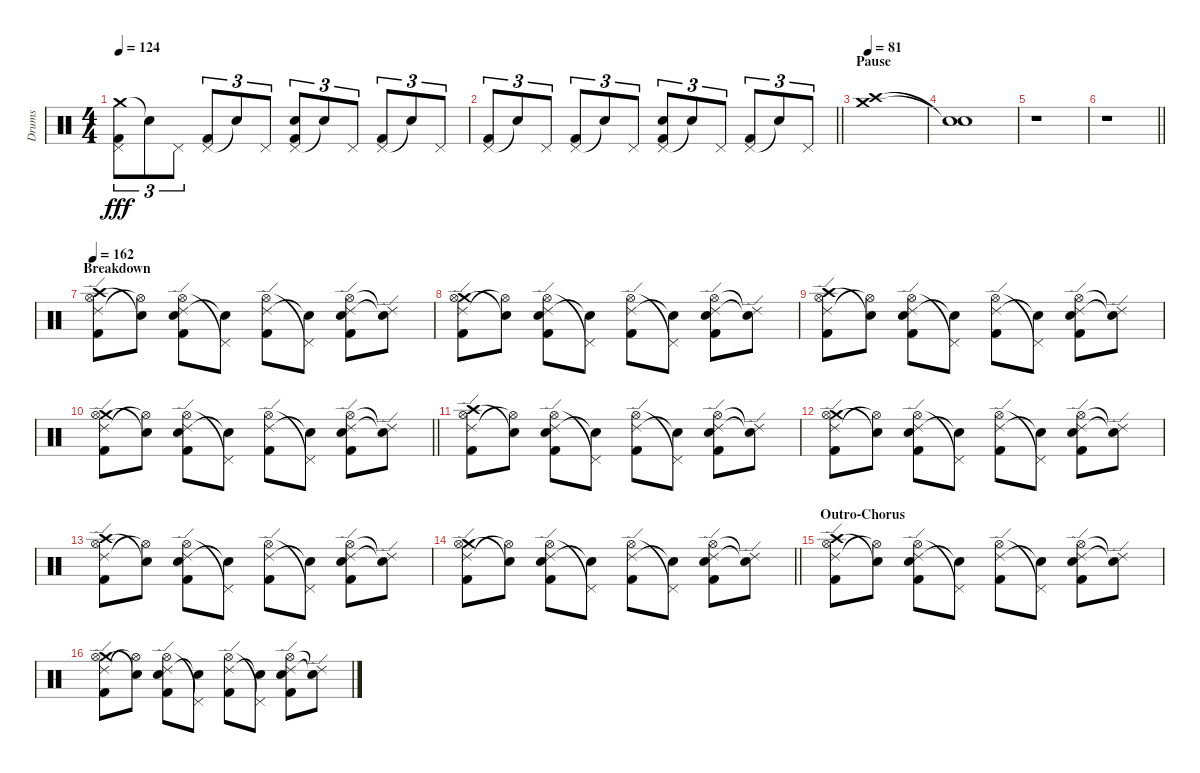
\track ("Drums" "Drums") {instrument percussion}
\staff {score}
\articulation defaults
\ts (4 4)
\tempo 124
\clef neutral
\ks c
("Crash medium (hit)" "Pedal Hi-Hat (hit)" "Kick (hit) 2").8{tu (3 2) dy fff} "Snare (hit)"{t}.8{tu (3 2)} "Pedal Hi-Hat (hit)".8{tu (3 2)} ("Pedal Hi-Hat (hit)" "Kick (hit) 2").8{tu (3 2)} "Snare (hit)"{t}.8{tu (3 2)} "Pedal Hi-Hat (hit)".8{tu (3 2)} ("Pedal Hi-Hat (hit)" "Snare (hit) 2" "Kick (hit) 2").8{tu (3 2)} "Snare (hit)"{t}.8{tu (3 2)} "Pedal Hi-Hat (hit)".8{tu (3 2)} ("Pedal Hi-Hat (hit)" "Kick (hit) 2").8{tu (3 2)} "Snare (hit)"{t}.8{tu (3 2)} "Pedal Hi-Hat (hit)".8{tu (3 2)} |
\barLineRight lightlight
("Pedal Hi-Hat (hit)" "Kick (hit) 2").8{tu (3 2)} "Snare (hit)"{t}.8{tu (3 2)} "Pedal Hi-Hat (hit)".8{tu (3 2)} ("Pedal Hi-Hat (hit)" "Kick (hit) 2").8{tu (3 2)} "Snare (hit)"{t}.8{tu (3 2)} "Pedal Hi-Hat (hit)".8{tu (3 2)} ("Pedal Hi-Hat (hit)" "Snare (hit) 2" "Kick (hit) 2").8{tu (3 2)} "Snare (hit)"{t}.8{tu (3 2)} "Pedal Hi-Hat (hit)".8{tu (3 2)} ("Pedal Hi-Hat (hit)" "Kick (hit) 2").8{tu (3 2)} "Snare (hit)"{t}.8{tu (3 2)} "Pedal Hi-Hat (hit)".8{tu (3 2)} |
\section ("" "Pause")
\tempo 81
("Crash high (hit)" "Crash medium (hit)").1 |
("Snare (hit)"{t} "Snare (hit)"{t}).1 |
r.1 |
\barLineRight lightlight
r.1 |
\section ("" "Breakdown")
\tempo 162
("Crash high (hit)" "Ride (edge) 2" "Hi-Hat (open)" "Kick (hit) 2").8 ("Snare (hit)"{t} "Hi-Hat (open)"{t}).8 ("Ride (edge) 2" "Hi-Hat (open)" "Snare (hit) 2" "Kick (hit) 2").8 ("Snare (hit)"{t} "Pedal Hi-Hat (hit)"{t}).8 ("Ride (edge) 2" "Hi-Hat (open)" "Kick (hit) 2").8 ("Snare (hit)"{t} "Pedal Hi-Hat (hit)"{t}).8 ("Ride (edge) 2" "Hi-Hat (open)" "Snare (hit) 2" "Kick (hit) 2").8 ("Snare (hit)"{t} "Ride (edge) 2"{t}).8 |
("Crash medium (hit)" "Ride (edge) 2" "Hi-Hat (open)" "Kick (hit) 2").8 ("Snare (hit)"{t} "Hi-Hat (open)"{t}).8 ("Ride (edge) 2" "Hi-Hat (open)" "Snare (hit) 2" "Kick (hit) 2").8 ("Snare (hit)"{t} "Pedal Hi-Hat (hit)"{t}).8 ("Ride (edge) 2" "Hi-Hat (open)" "Kick (hit) 2").8 ("Snare (hit)"{t} "Pedal Hi-Hat (hit)"{t}).8 ("Ride (edge) 2" "Hi-Hat (open)" "Snare (hit) 2" "Kick (hit) 2").8 ("Snare (hit)"{t} "Ride (edge) 2"{t}).8 |
("Crash high (hit)" "Ride (edge) 2" "Hi-Hat (open)" "Kick (hit) 2").8 ("Snare (hit)"{t} "Hi-Hat (open)"{t}).8 ("Ride (edge) 2" "Hi-Hat (open)" "Snare (hit) 2" "Kick (hit) 2").8 ("Snare (hit)"{t} "Pedal Hi-Hat (hit)"{t}).8 ("Ride (edge) 2" "Hi-Hat (open)" "Kick (hit) 2").8 ("Snare (hit)"{t} "Pedal Hi-Hat (hit)"{t}).8 ("Ride (edge) 2" "Hi-Hat (open)" "Snare (hit) 2" "Kick (hit) 2").8 ("Snare (hit)"{t} "Ride (edge) 2"{t}).8 |
\barLineRight lightlight
("Crash medium (hit)" "Ride (edge) 2" "Hi-Hat (open)" "Kick (hit) 2").8 ("Snare (hit)"{t} "Hi-Hat (open)"{t}).8 ("Ride (edge) 2" "Hi-Hat (open)" "Snare (hit) 2" "Kick (hit) 2").8 ("Snare (hit)"{t} "Pedal Hi-Hat (hit)"{t}).8 ("Ride (edge) 2" "Hi-Hat (open)" "Kick (hit) 2").8 ("Snare (hit)"{t} "Pedal Hi-Hat (hit)"{t}).8 ("Ride (edge) 2" "Hi-Hat (open)" "Snare (hit) 2" "Kick (hit) 2").8 ("Snare (hit)"{t} "Ride (edge) 2"{t}).8 |
("Crash high (hit)" "Ride (edge) 2" "Hi-Hat (open)" "Kick (hit) 2").8 ("Snare (hit)"{t} "Hi-Hat (open)"{t}).8 ("Ride (edge) 2" "Hi-Hat (open)" "Snare (hit) 2" "Kick (hit) 2").8 ("Snare (hit)"{t} "Pedal Hi-Hat (hit)"{t}).8 ("Ride (edge) 2" "Hi-Hat (open)" "Kick (hit) 2").8 ("Snare (hit)"{t} "Pedal Hi-Hat (hit)"{t}).8 ("Ride (edge) 2" "Hi-Hat (open)" "Snare (hit) 2" "Kick (hit) 2").8 ("Snare (hit)"{t} "Ride (edge) 2"{t}).8 |
("Crash medium (hit)" "Ride (edge) 2" "Hi-Hat (open)" "Kick (hit) 2").8 ("Snare (hit)"{t} "Hi-Hat (open)"{t}).8 ("Ride (edge) 2" "Hi-Hat (open)" "Snare (hit) 2" "Kick (hit) 2").8 ("Snare (hit)"{t} "Pedal Hi-Hat (hit)"{t}).8 ("Ride (edge) 2" "Hi-Hat (open)" "Kick (hit) 2").8 ("Snare (hit)"{t} "Pedal Hi-Hat (hit)"{t}).8 ("Ride (edge) 2" "Hi-Hat (open)" "Snare (hit) 2" "Kick (hit) 2").8 ("Snare (hit)"{t} "Ride (edge) 2"{t}).8 |
("Crash high (hit)" "Ride (edge) 2" "Hi-Hat (open)" "Kick (hit) 2").8 ("Snare (hit)"{t} "Hi-Hat (open)"{t}).8 ("Ride (edge) 2" "Hi-Hat (open)" "Snare (hit) 2" "Kick (hit) 2").8 ("Snare (hit)"{t} "Pedal Hi-Hat (hit)"{t}).8 ("Ride (edge) 2" "Hi-Hat (open)" "Kick (hit) 2").8 ("Snare (hit)"{t} "Pedal Hi-Hat (hit)"{t}).8 ("Ride (edge) 2" "Hi-Hat (open)" "Snare (hit) 2" "Kick (hit) 2").8 ("Snare (hit)"{t} "Ride (edge) 2"{t}).8 |
\barLineRight lightlight
("Crash medium (hit)" "Ride (edge) 2" "Hi-Hat (open)" "Kick (hit) 2").8 ("Snare (hit)"{t} "Hi-Hat (open)"{t}).8 ("Ride (edge) 2" "Hi-Hat (open)" "Snare (hit) 2" "Kick (hit) 2").8 ("Snare (hit)"{t} "Pedal Hi-Hat (hit)"{t}).8 ("Ride (edge) 2" "Hi-Hat (open)" "Kick (hit) 2").8 ("Snare (hit)"{t} "Pedal Hi-Hat (hit)"{t}).8 ("Ride (edge) 2" "Hi-Hat (open)" "Snare (hit) 2" "Kick (hit) 2").8 ("Snare (hit)"{t} "Ride (edge) 2"{t}).8 |
\section ("" "Outro-Chorus")
("Crash high (hit)" "Ride (edge) 2" "Hi-Hat (open)" "Kick (hit) 2").8 ("Snare (hit)"{t} "Hi-Hat (open)"{t}).8 ("Ride (edge) 2" "Hi-Hat (open)" "Snare (hit) 2" "Kick (hit) 2").8 ("Snare (hit)"{t} "Pedal Hi-Hat (hit)"{t}).8 ("Ride (edge) 2" "Hi-Hat (open)" "Kick (hit) 2").8 ("Snare (hit)"{t} "Pedal Hi-Hat (hit)"{t}).8 ("Ride (edge) 2" "Hi-Hat (open)" "Snare (hit) 2" "Kick (hit) 2").8 ("Snare (hit)"{t} "Ride (edge) 2"{t}).8 |
("Crash medium (hit)" "Ride (edge) 2" "Hi-Hat (open)" "Kick (hit) 2").8 ("Snare (hit)"{t} "Hi-Hat (open)"{t}).8 ("Ride (edge) 2" "Hi-Hat (open)" "Snare (hit) 2" "Kick (hit) 2").8 ("Snare (hit)"{t} "Pedal Hi-Hat (hit)"{t}).8 ("Ride (edge) 2" "Hi-Hat (open)" "Kick (hit) 2").8 ("Snare (hit)"{t} "Pedal Hi-Hat (hit)"{t}).8 ("Ride (edge) 2" "Hi-Hat (open)" "Snare (hit) 2" "Kick (hit) 2").8 ("Snare (hit)"{t} "Ride (edge) 2"{t}).8
